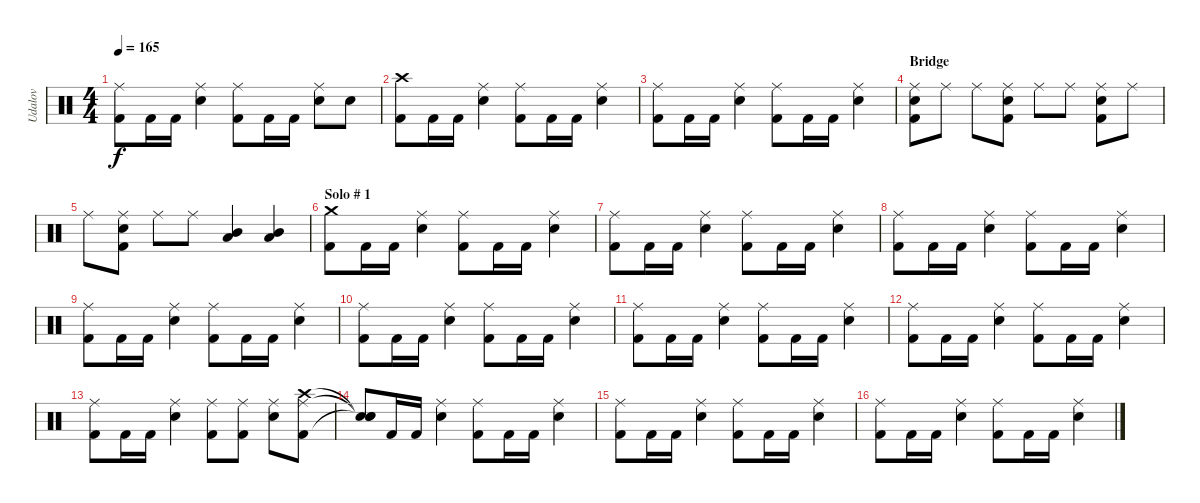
\track ("Udalov" "Udalov") {instrument percussion}
\staff {score}
\articulation defaults
\ts (4 4)
\tempo 165
\clef neutral
\ks c
("Kick (hit) 2" "Ride (middle)").8{dy f} "Kick (hit) 2".16 "Kick (hit) 2".16 ("Snare (hit) 2" "Ride (middle)").4 ("Kick (hit) 2" "Ride (middle)").8 "Kick (hit) 2".16 "Kick (hit) 2".16 ("Snare (hit) 2" "Ride (middle)").8 "Snare (hit) 2".8 |
("Kick (hit) 2" "Crash high (hit)").8 "Kick (hit) 2".16 "Kick (hit) 2".16 ("Snare (hit) 2" "Ride (middle)").4 ("Kick (hit) 2" "Ride (middle)").8 "Kick (hit) 2".16 "Kick (hit) 2".16 ("Snare (hit) 2" "Ride (middle)").4 |
("Kick (hit) 2" "Ride (middle)").8 "Kick (hit) 2".16 "Kick (hit) 2".16 ("Snare (hit) 2" "Ride (middle)").4 ("Kick (hit) 2" "Ride (middle)").8 "Kick (hit) 2".16 "Kick (hit) 2".16 ("Snare (hit) 2" "Ride (middle)").4 |
\section ("" "Bridge")
("Kick (hit) 2" "Electric Snare (hit)" "Ride (middle)").8 "Ride (middle)".8 "Ride (middle)".8 ("Kick (hit) 2" "Electric Snare (hit)" "Ride (middle)").8 "Ride (middle)".8 "Ride (middle)".8 ("Kick (hit) 2" "Electric Snare (hit)" "Ride (middle)").8 "Ride (middle)".8 |
"Ride (middle)".8 ("Electric Snare (hit)" "Kick (hit) 2" "Ride (middle)").8 "Ride (middle)".8 "Ride (middle)".8 ("Low Tom (hit)" "Mid Tom (hit)").4 ("Low Tom (hit)" "Mid Tom (hit)").4 |
\section ("" "Solo # 1")
("Kick (hit) 2" "Crash medium (hit)").8 "Kick (hit) 2".16 "Kick (hit) 2".16 ("Snare (hit) 2" "Ride (middle)").4 ("Kick (hit) 2" "Ride (middle)").8 "Kick (hit) 2".16 "Kick (hit) 2".16 ("Snare (hit) 2" "Ride (middle)").4 |
("Kick (hit) 2" "Ride (middle)").8 "Kick (hit) 2".16 "Kick (hit) 2".16 ("Snare (hit) 2" "Ride (middle)").4 ("Kick (hit) 2" "Ride (middle)").8 "Kick (hit) 2".16 "Kick (hit) 2".16 ("Snare (hit) 2" "Ride (middle)").4 |
("Kick (hit) 2" "Ride (middle)").8 "Kick (hit) 2".16 "Kick (hit) 2".16 ("Snare (hit) 2" "Ride (middle)").4 ("Kick (hit) 2" "Ride (middle)").8 "Kick (hit) 2".16 "Kick (hit) 2".16 ("Snare (hit) 2" "Ride (middle)").4 |
("Kick (hit) 2" "Ride (middle)").8 "Kick (hit) 2".16 "Kick (hit) 2".16 ("Snare (hit) 2" "Ride (middle)").4 ("Kick (hit) 2" "Ride (middle)").8 "Kick (hit) 2".16 "Kick (hit) 2".16 ("Snare (hit) 2" "Ride (middle)").4 |
("Kick (hit) 2" "Ride (middle)").8 "Kick (hit) 2".16 "Kick (hit) 2".16 ("Snare (hit) 2" "Ride (middle)").4 ("Kick (hit) 2" "Ride (middle)").8 "Kick (hit) 2".16 "Kick (hit) 2".16 ("Snare (hit) 2" "Ride (middle)").4 |
("Kick (hit) 2" "Ride (middle)").8 "Kick (hit) 2".16 "Kick (hit) 2".16 ("Snare (hit) 2" "Ride (middle)").4 ("Kick (hit) 2" "Ride (middle)").8 "Kick (hit) 2".16 "Kick (hit) 2".16 ("Snare (hit) 2" "Ride (middle)").4 |
("Kick (hit) 2" "Ride (middle)").8 "Kick (hit) 2".16 "Kick (hit) 2".16 ("Snare (hit) 2" "Ride (middle)").4 ("Kick (hit) 2" "Ride (middle)").8 "Kick (hit) 2".16 "Kick (hit) 2".16 ("Snare (hit) 2" "Ride (middle)").4 |
("Kick (hit) 2" "Ride (middle)").8 "Kick (hit) 2".16 "Kick (hit) 2".16 ("Snare (hit) 2" "Ride (middle)").4 ("Kick (hit) 2" "Ride (middle)").8 ("Kick (hit) 2" "Ride (middle)").8 ("Snare (hit) 2" "Ride (middle)").8 ("Kick (hit) 2" "Ride (middle)" "Crash high (hit)").8 |
("Snare (hit)"{t} "Snare (hit)"{t} "Snare (hit)"{t}).8 "Kick (hit) 2".16 "Kick (hit) 2".16 ("Snare (hit) 2" "Ride (middle)").4 ("Kick (hit) 2" "Ride (middle)").8 "Kick (hit) 2".16 "Kick (hit) 2".16 ("Snare (hit) 2" "Ride (middle)").4 |
("Kick (hit) 2" "Ride (middle)").8 "Kick (hit) 2".16 "Kick (hit) 2".16 ("Snare (hit) 2" "Ride (middle)").4 ("Kick (hit) 2" "Ride (middle)").8 "Kick (hit) 2".16 "Kick (hit) 2".16 ("Snare (hit) 2" "Ride (middle)").4 |
("Kick (hit) 2" "Ride (middle)").8 "Kick (hit) 2".16 "Kick (hit) 2".16 ("Snare (hit) 2" "Ride (middle)").4 ("Kick (hit) 2" "Ride (middle)").8 "Kick (hit) 2".16 "Kick (hit) 2".16 ("Snare (hit) 2" "Ride (middle)").4
